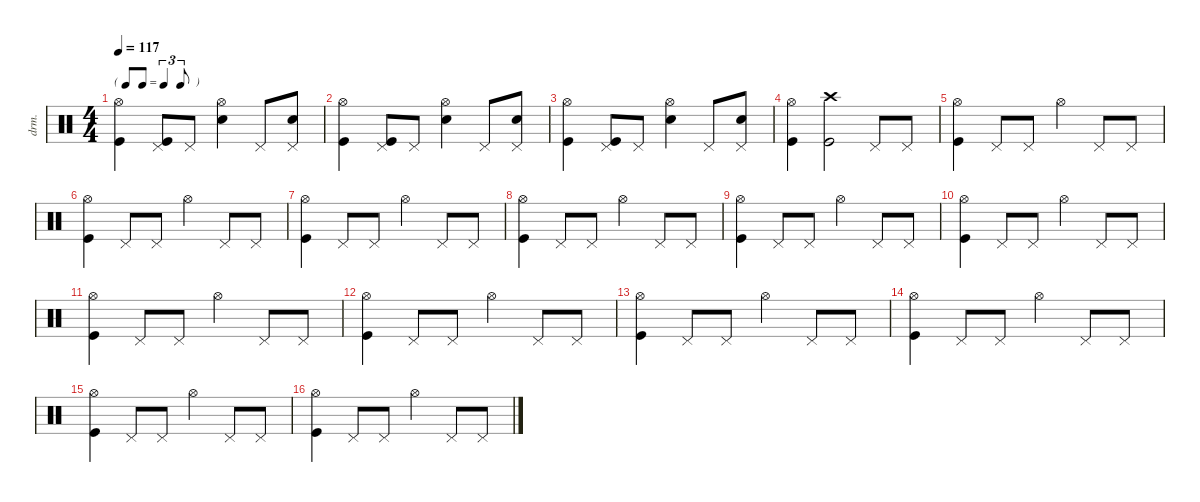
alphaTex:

\defaultSystemsLayout 4
\hideDynamics
\bracketExtendMode nobrackets
\otherSystemsTrackNameOrientation horizontal
\track ("Percussions" "drm.") {instrument percussion}
\staff {score}
\articulation defaults
\ts (4 4)
\tf triplet8th
\tempo 117
\clef neutral
\ks c
("Hi-Hat (open)" "Kick (hit)").4{dy f} ("Pedal Hi-Hat (hit)" "Kick (hit)").8 "Pedal Hi-Hat (hit)".8 ("Hi-Hat (open)" "Snare (hit) 2").4 "Pedal Hi-Hat (hit)".8 ("Pedal Hi-Hat (hit)" "Snare (hit) 2").8 |
("Hi-Hat (open)" "Kick (hit)").4 ("Pedal Hi-Hat (hit)" "Kick (hit)").8 "Pedal Hi-Hat (hit)".8 ("Hi-Hat (open)" "Snare (hit) 2").4 "Pedal Hi-Hat (hit)".8 ("Pedal Hi-Hat (hit)" "Snare (hit) 2").8 |
("Hi-Hat (open)" "Kick (hit)").4 ("Pedal Hi-Hat (hit)" "Kick (hit)").8 "Pedal Hi-Hat (hit)".8 ("Hi-Hat (open)" "Snare (hit) 2").4 "Pedal Hi-Hat (hit)".8 ("Pedal Hi-Hat (hit)" "Snare (hit) 2").8 |
("Hi-Hat (open)" "Kick (hit)").4 ("Crash high (hit)" "Kick (hit)").2 "Pedal Hi-Hat (hit)".8 "Pedal Hi-Hat (hit)".8 |
("Hi-Hat (open)" "Kick (hit)").4 "Pedal Hi-Hat (hit)".8 "Pedal Hi-Hat (hit)".8 "Hi-Hat (open)".4 "Pedal Hi-Hat (hit)".8 "Pedal Hi-Hat (hit)".8 |
("Hi-Hat (open)" "Kick (hit)").4 "Pedal Hi-Hat (hit)".8 "Pedal Hi-Hat (hit)".8 "Hi-Hat (open)".4 "Pedal Hi-Hat (hit)".8 "Pedal Hi-Hat (hit)".8 |
("Hi-Hat (open)" "Kick (hit)").4 "Pedal Hi-Hat (hit)".8 "Pedal Hi-Hat (hit)".8 "Hi-Hat (open)".4 "Pedal Hi-Hat (hit)".8 "Pedal Hi-Hat (hit)".8 |
("Hi-Hat (open)" "Kick (hit)").4 "Pedal Hi-Hat (hit)".8 "Pedal Hi-Hat (hit)".8 "Hi-Hat (open)".4 "Pedal Hi-Hat (hit)".8 "Pedal Hi-Hat (hit)".8 |
("Hi-Hat (open)" "Kick (hit)").4 "Pedal Hi-Hat (hit)".8 "Pedal Hi-Hat (hit)".8 "Hi-Hat (open)".4 "Pedal Hi-Hat (hit)".8 "Pedal Hi-Hat (hit)".8 |
("Hi-Hat (open)" "Kick (hit)").4 "Pedal Hi-Hat (hit)".8 "Pedal Hi-Hat (hit)".8 "Hi-Hat (open)".4 "Pedal Hi-Hat (hit)".8 "Pedal Hi-Hat (hit)".8 |
("Hi-Hat (open)" "Kick (hit)").4 "Pedal Hi-Hat (hit)".8 "Pedal Hi-Hat (hit)".8 "Hi-Hat (open)".4 "Pedal Hi-Hat (hit)".8 "Pedal Hi-Hat (hit)".8 |
("Hi-Hat (open)" "Kick (hit)").4 "Pedal Hi-Hat (hit)".8 "Pedal Hi-Hat (hit)".8 "Hi-Hat (open)".4 "Pedal Hi-Hat (hit)".8 "Pedal Hi-Hat (hit)".8 |
("Hi-Hat (open)" "Kick (hit)").4 "Pedal Hi-Hat (hit)".8 "Pedal Hi-Hat (hit)".8 "Hi-Hat (open)".4 "Pedal Hi-Hat (hit)".8 "Pedal Hi-Hat (hit)".8 |
("Hi-Hat (open)" "Kick (hit)").4 "Pedal Hi-Hat (hit)".8 "Pedal Hi-Hat (hit)".8 "Hi-Hat (open)".4 "Pedal Hi-Hat (hit)".8 "Pedal Hi-Hat (hit)".8 |
("Hi-Hat (open)" "Kick (hit)").4 "Pedal Hi-Hat (hit)".8 "Pedal Hi-Hat (hit)".8 "Hi-Hat (open)".4 "Pedal Hi-Hat (hit)".8 "Pedal Hi-Hat (hit)".8 |
("Hi-Hat (open)" "Kick (hit)").4 "Pedal Hi-Hat (hit)".8 "Pedal Hi-Hat (hit)".8 "Hi-Hat (open)".4 "Pedal Hi-Hat (hit)".8 "Pedal Hi-Hat (hit)".8
